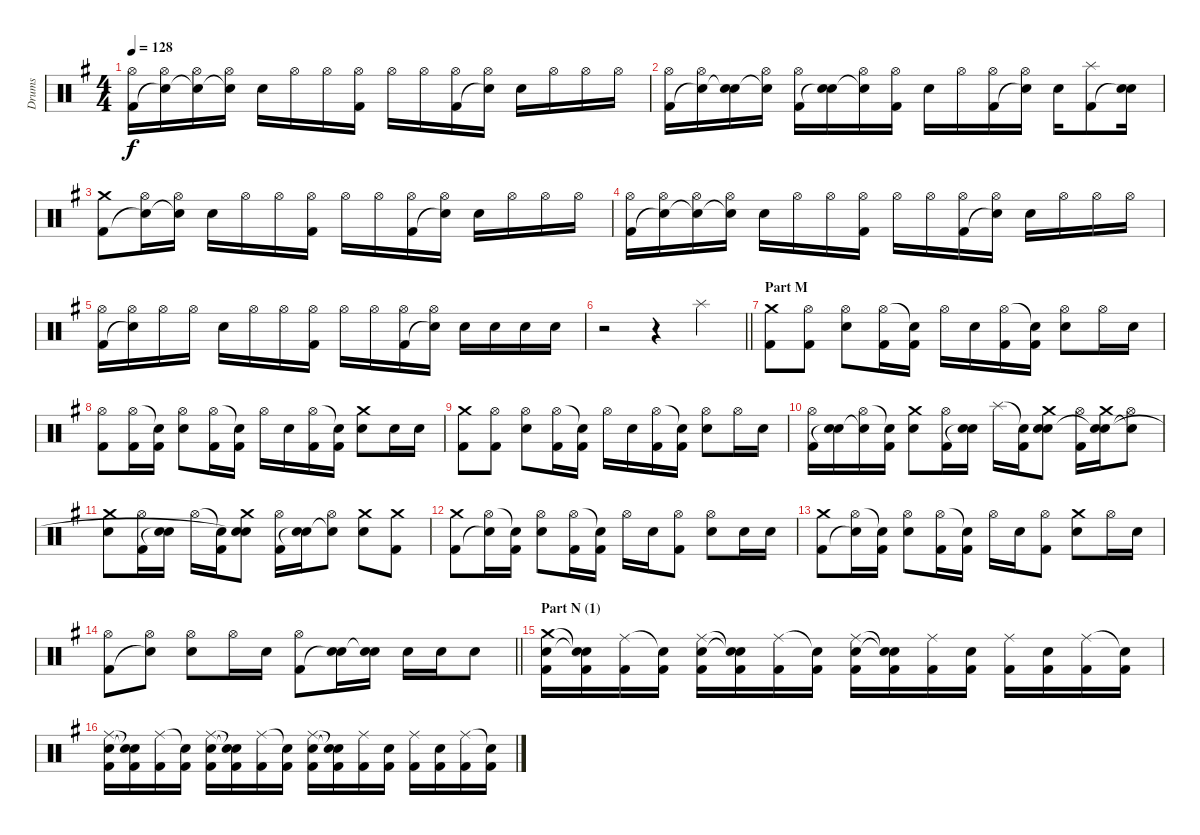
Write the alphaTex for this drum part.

\track ("Drums" "Drums") {instrument percussion}
\staff {score}
\articulation defaults
\ts (4 4)
\tempo 128
\clef neutral
\ks g
("Hi-Hat (open)" "Kick (hit) 2").16{dy f} ("Hi-Hat (open)" "Snare (hit)"{t}).16 ("Hi-Hat (open)" "Snare (hit)"{t}).16 ("Hi-Hat (open)" "Snare (hit)"{t}).16 "Electric Snare (hit)".16 "Hi-Hat (open)".16 "Hi-Hat (open)".16 ("Hi-Hat (open)" "Kick (hit) 2").16 "Hi-Hat (open)".16 "Hi-Hat (open)".16 ("Hi-Hat (open)" "Kick (hit) 2").16 ("Hi-Hat (open)" "Snare (hit)"{t}).16 "Electric Snare (hit)".16 "Hi-Hat (open)".16 "Hi-Hat (open)".16 "Hi-Hat (open)".16 |
("Hi-Hat (open)" "Kick (hit) 2").16 ("Hi-Hat (open)" "Snare (hit)"{t}).16 ("Electric Snare (hit)" "Snare (hit)"{t}).16 ("Hi-Hat (open)" "Snare (hit)"{t}).16 ("Hi-Hat (open)" "Kick (hit) 2").16 ("Electric Snare (hit)" "Snare (hit)"{t}).16 ("Hi-Hat (open)" "Snare (hit)"{t}).16 ("Hi-Hat (open)" "Kick (hit) 2").16 "Electric Snare (hit)".16 "Hi-Hat (open)".16 ("Hi-Hat (open)" "Kick (hit) 2").16 ("Hi-Hat (open)" "Snare (hit)"{t}).16 "Electric Snare (hit)".16 ("Splash (hit)" "Kick (hit) 2").8 ("Electric Snare (hit)" "Snare (hit)"{t}).16 |
("Crash medium (hit)" "Kick (hit) 2").8 ("Hi-Hat (open)" "Snare (hit)"{t}).16 ("Hi-Hat (open)" "Snare (hit)"{t}).16 "Electric Snare (hit)".16 "Hi-Hat (open)".16 "Hi-Hat (open)".16 ("Hi-Hat (open)" "Kick (hit) 2").16 "Hi-Hat (open)".16 "Hi-Hat (open)".16 ("Hi-Hat (open)" "Kick (hit) 2").16 ("Hi-Hat (open)" "Snare (hit)"{t}).16 "Electric Snare (hit)".16 "Hi-Hat (open)".16 "Hi-Hat (open)".16 "Hi-Hat (open)".16 |
("Hi-Hat (open)" "Kick (hit) 2").16 ("Hi-Hat (open)" "Snare (hit)"{t}).16 ("Hi-Hat (open)" "Snare (hit)"{t}).16 ("Hi-Hat (open)" "Snare (hit)"{t}).16 "Electric Snare (hit)".16 "Hi-Hat (open)".16 "Hi-Hat (open)".16 ("Hi-Hat (open)" "Kick (hit) 2").16 "Hi-Hat (open)".16 "Hi-Hat (open)".16 ("Hi-Hat (open)" "Kick (hit) 2").16 ("Hi-Hat (open)" "Snare (hit)"{t}).16 "Electric Snare (hit)".16 "Hi-Hat (open)".16 "Hi-Hat (open)".16 "Hi-Hat (open)".16 |
("Hi-Hat (open)" "Kick (hit) 2").16 ("Hi-Hat (open)" "Snare (hit)"{t}).16 "Hi-Hat (open)".16 "Hi-Hat (open)".16 "Electric Snare (hit)".16 "Hi-Hat (open)".16 "Hi-Hat (open)".16 ("Hi-Hat (open)" "Kick (hit) 2").16 "Hi-Hat (open)".16 "Hi-Hat (open)".16 ("Hi-Hat (open)" "Kick (hit) 2").16 ("Hi-Hat (open)" "Snare (hit)"{t}).16 "Electric Snare (hit)".16 "Electric Snare (hit)".16 "Electric Snare (hit)".16 "Electric Snare (hit)".16 |
\barLineRight lightlight
r.2 r.4 "Splash (hit)".4 |
\section ("" "Part M")
("Crash medium (hit)" "Kick (hit) 2").8 ("Hi-Hat (open)" "Kick (hit) 2").8 ("Hi-Hat (open)" "Electric Snare (hit)").8 ("Hi-Hat (open)" "Kick (hit) 2").16 ("Snare (hit)"{t} "Kick (hit) 2").16 "Hi-Hat (open)".16 "Electric Snare (hit)".16 ("Hi-Hat (open)" "Kick (hit) 2").16 ("Snare (hit)"{t} "Kick (hit) 2").16 ("Hi-Hat (open)" "Electric Snare (hit)").8 "Hi-Hat (open)".16 "Electric Snare (hit)".16 |
("Hi-Hat (open)" "Kick (hit) 2").8 ("Hi-Hat (open)" "Kick (hit) 2").16 ("Snare (hit)"{t} "Kick (hit) 2").16 ("Hi-Hat (open)" "Electric Snare (hit)").8 ("Hi-Hat (open)" "Kick (hit) 2").16 ("Snare (hit)"{t} "Kick (hit) 2").16 "Hi-Hat (open)".16 "Electric Snare (hit)".16 ("Hi-Hat (open)" "Kick (hit) 2").16 ("Snare (hit)"{t} "Kick (hit) 2").16 ("Crash medium (hit)" "Electric Snare (hit)").8 "Electric Snare (hit)".16 "Electric Snare (hit)".16 |
("Crash medium (hit)" "Kick (hit) 2").8 ("Hi-Hat (open)" "Kick (hit) 2").8 ("Hi-Hat (open)" "Electric Snare (hit)").8 ("Hi-Hat (open)" "Kick (hit) 2").16 ("Snare (hit)"{t} "Kick (hit) 2").16 "Hi-Hat (open)".16 "Electric Snare (hit)".16 ("Hi-Hat (open)" "Kick (hit) 2").16 ("Snare (hit)"{t} "Kick (hit) 2").16 ("Hi-Hat (open)" "Electric Snare (hit)").8 "Hi-Hat (open)".16 "Electric Snare (hit)".16 |
("Hi-Hat (open)" "Kick (hit) 2").16 ("Electric Snare (hit)" "Snare (hit)"{t}).16 ("Hi-Hat (open)" "Snare (hit)"{t}).16 ("Snare (hit)"{t} "Kick (hit) 2").16 ("Crash medium (hit)" "Electric Snare (hit)").8 ("Hi-Hat (open)" "Kick (hit) 2").16 ("Electric Snare (hit)" "Snare (hit)"{t}).16 "Splash (hit)".16 ("Snare (hit)"{t} "Kick (hit) 2").16 ("Crash medium (hit)" "Electric Snare (hit)" "Snare (hit)").8 ("Hi-Hat (open)" "Kick (hit) 2").16 ("Crash medium (hit)" "Electric Snare (hit)" "Snare (hit)"{t}).16 ("Hi-Hat (open)" "Snare (hit)"{t}).8 |
("Crash medium (hit)" "Electric Snare (hit)").8 ("Hi-Hat (open)" "Kick (hit) 2").16 ("Electric Snare (hit)" "Snare (hit)"{t}).16 "Hi-Hat (open)".16 ("Snare (hit)"{t} "Kick (hit) 2").16 ("Crash medium (hit)" "Electric Snare (hit)" "Snare (hit)"{t}).8 ("Hi-Hat (open)" "Kick (hit) 2").16 ("Electric Snare (hit)" "Snare (hit)"{t}).16 ("Hi-Hat (open)" "Snare (hit)"{t}).8 ("Crash medium (hit)" "Electric Snare (hit)").8 ("Crash medium (hit)" "Kick (hit) 2").8 |
("Crash medium (hit)" "Kick (hit) 2").8 ("Hi-Hat (open)" "Snare (hit)"{t}).16 ("Snare (hit)"{t} "Kick (hit) 2").16 ("Hi-Hat (open)" "Electric Snare (hit)").8 ("Hi-Hat (open)" "Kick (hit) 2").16 ("Snare (hit)"{t} "Kick (hit) 2").16 "Hi-Hat (open)".16 "Electric Snare (hit)".16 ("Hi-Hat (open)" "Kick (hit) 2").8 ("Hi-Hat (open)" "Electric Snare (hit)").8 "Electric Snare (hit)".16 "Electric Snare (hit)".16 |
("Crash medium (hit)" "Kick (hit) 2").8 ("Hi-Hat (open)" "Snare (hit)"{t}).16 ("Snare (hit)"{t} "Kick (hit) 2").16 ("Hi-Hat (open)" "Electric Snare (hit)").8 ("Hi-Hat (open)" "Kick (hit) 2").16 ("Snare (hit)"{t} "Kick (hit) 2").16 "Hi-Hat (open)".16 "Electric Snare (hit)".16 ("Hi-Hat (open)" "Kick (hit) 2").8 ("Crash medium (hit)" "Electric Snare (hit)").8 "Hi-Hat (open)".16 "Electric Snare (hit)".16 |
\barLineRight lightlight
("Hi-Hat (open)" "Kick (hit) 2").8 ("Hi-Hat (open)" "Snare (hit)"{t}).8 ("Hi-Hat (open)" "Electric Snare (hit)").8 "Hi-Hat (open)".16 "Electric Snare (hit)".16 ("Hi-Hat (open)" "Kick (hit) 2").8 ("Electric Snare (hit)" "Snare (hit)"{t}).16 ("Electric Snare (hit)" "Snare (hit)"{t}).16 "Electric Snare (hit)".16 "Electric Snare (hit)".16 "Electric Snare (hit)".8 |
\section ("" "Part N (1)")
("Crash medium (hit)" "Electric Snare (hit)" "Kick (hit) 2").16 ("Snare (hit)"{t} "Snare (hit)"{t} "Kick (hit) 2").16 ("Ride (middle)" "Kick (hit) 2").16 ("Snare (hit)"{t} "Kick (hit) 2").16 ("Ride (middle)" "Electric Snare (hit)" "Kick (hit) 2").16 ("Snare (hit)"{t} "Snare (hit)"{t} "Kick (hit) 2").16 ("Ride (middle)" "Kick (hit) 2").16 ("Snare (hit)"{t} "Kick (hit) 2").16 ("Ride (middle)" "Electric Snare (hit)" "Kick (hit) 2").16 ("Snare (hit)"{t} "Snare (hit)"{t} "Kick (hit) 2").16 ("Ride (middle)" "Kick (hit) 2").16 ("Electric Snare (hit)" "Kick (hit) 2").16 ("Ride (middle)" "Kick (hit) 2").16 ("Electric Snare (hit)" "Kick (hit) 2").16 ("Ride (middle)" "Kick (hit) 2").16 ("Snare (hit)"{t} "Kick (hit) 2").16 |
("Ride (middle)" "Electric Snare (hit)" "Kick (hit) 2").16 ("Snare (hit)"{t} "Snare (hit)"{t} "Kick (hit) 2").16 ("Ride (middle)" "Kick (hit) 2").16 ("Snare (hit)"{t} "Kick (hit) 2").16 ("Ride (middle)" "Electric Snare (hit)" "Kick (hit) 2").16 ("Snare (hit)"{t} "Snare (hit)"{t} "Kick (hit) 2").16 ("Ride (middle)" "Kick (hit) 2").16 ("Snare (hit)"{t} "Kick (hit) 2").16 ("Ride (middle)" "Electric Snare (hit)" "Kick (hit) 2").16 ("Snare (hit)"{t} "Snare (hit)"{t} "Kick (hit) 2").16 ("Ride (middle)" "Kick (hit) 2").16 ("Electric Snare (hit)" "Kick (hit) 2").16 ("Ride (middle)" "Kick (hit) 2").16 ("Electric Snare (hit)" "Kick (hit) 2").16 ("Ride (middle)" "Kick (hit) 2").16 ("Snare (hit)"{t} "Kick (hit) 2").16
